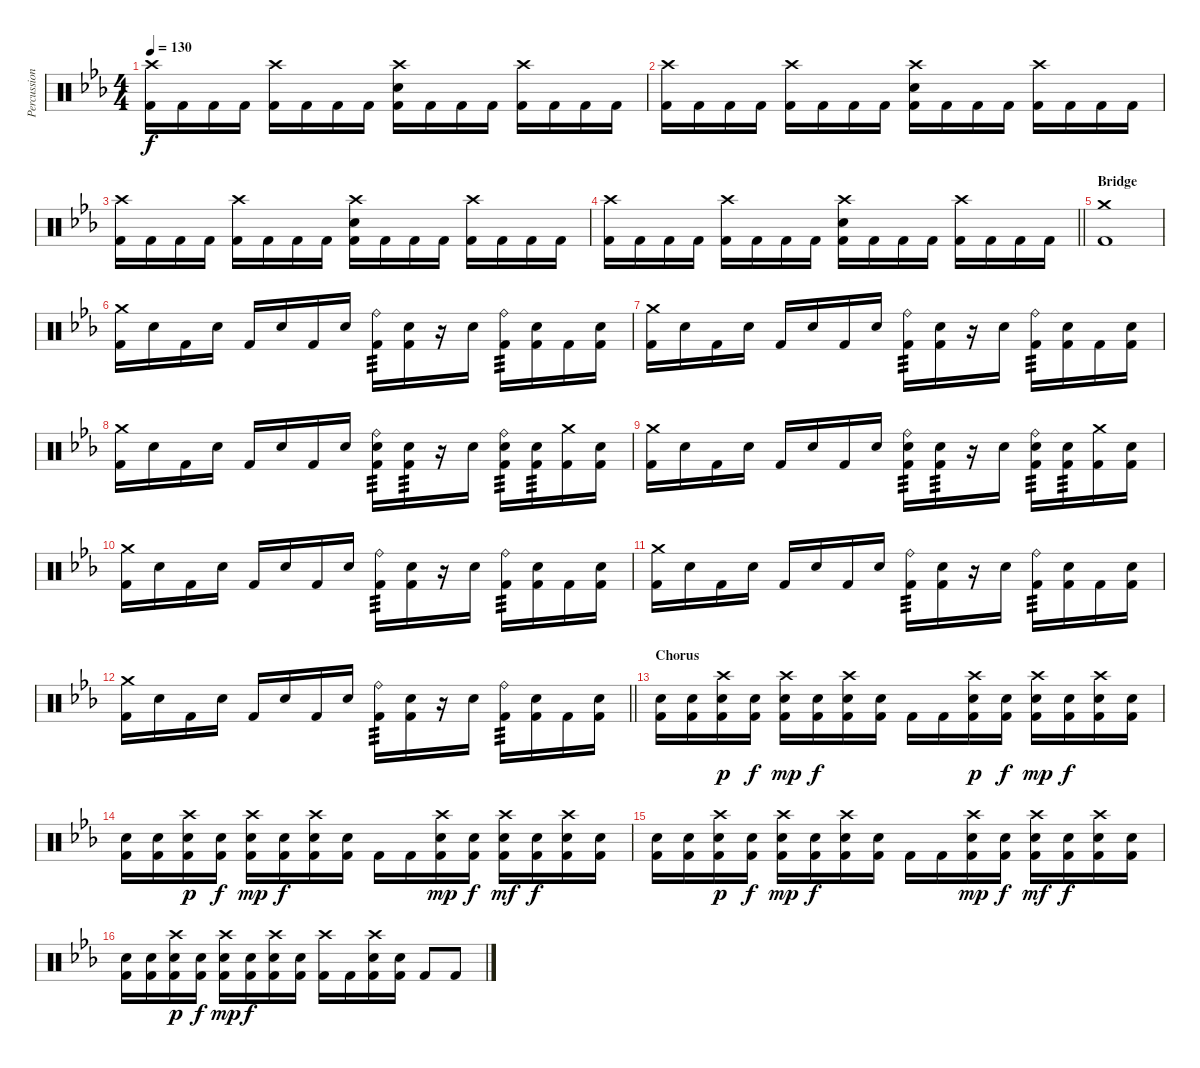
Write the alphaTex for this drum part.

\track ("Percussion" "Percussion") {instrument percussion}
\staff {score}
\articulation defaults
\ts (4 4)
\tempo 130
\clef neutral
\ks eb
("Crash high (hit)" "Kick (hit) 2").16{dy f} "Kick (hit) 2".16 "Kick (hit) 2".16 "Kick (hit) 2".16 ("Crash high (hit)" "Kick (hit) 2").16 "Kick (hit) 2".16 "Kick (hit) 2".16 "Kick (hit) 2".16 ("Crash high (hit)" "Electric Snare (hit)" "Kick (hit) 2").16 "Kick (hit) 2".16 "Kick (hit) 2".16 "Kick (hit) 2".16 ("Crash high (hit)" "Kick (hit) 2").16 "Kick (hit) 2".16 "Kick (hit) 2".16 "Kick (hit) 2".16 |
("Crash high (hit)" "Kick (hit) 2").16 "Kick (hit) 2".16 "Kick (hit) 2".16 "Kick (hit) 2".16 ("Crash high (hit)" "Kick (hit) 2").16 "Kick (hit) 2".16 "Kick (hit) 2".16 "Kick (hit) 2".16 ("Crash high (hit)" "Electric Snare (hit)" "Kick (hit) 2").16 "Kick (hit) 2".16 "Kick (hit) 2".16 "Kick (hit) 2".16 ("Crash high (hit)" "Kick (hit) 2").16 "Kick (hit) 2".16 "Kick (hit) 2".16 "Kick (hit) 2".16 |
("Crash high (hit)" "Kick (hit) 2").16 "Kick (hit) 2".16 "Kick (hit) 2".16 "Kick (hit) 2".16 ("Crash high (hit)" "Kick (hit) 2").16 "Kick (hit) 2".16 "Kick (hit) 2".16 "Kick (hit) 2".16 ("Crash high (hit)" "Electric Snare (hit)" "Kick (hit) 2").16 "Kick (hit) 2".16 "Kick (hit) 2".16 "Kick (hit) 2".16 ("Crash high (hit)" "Kick (hit) 2").16 "Kick (hit) 2".16 "Kick (hit) 2".16 "Kick (hit) 2".16 |
\barLineRight lightlight
("Crash high (hit)" "Kick (hit) 2").16 "Kick (hit) 2".16 "Kick (hit) 2".16 "Kick (hit) 2".16 ("Crash high (hit)" "Kick (hit) 2").16 "Kick (hit) 2".16 "Kick (hit) 2".16 "Kick (hit) 2".16 ("Crash high (hit)" "Electric Snare (hit)" "Kick (hit) 2").16 "Kick (hit) 2".16 "Kick (hit) 2".16 "Kick (hit) 2".16 ("Crash high (hit)" "Kick (hit) 2").16 "Kick (hit) 2".16 "Kick (hit) 2".16 "Kick (hit) 2".16 |
\section ("" "Bridge")
("Crash medium (hit)" "Kick (hit) 2").1 |
("Crash medium (hit)" "Kick (hit) 2").16 "Electric Snare (hit)".16 "Kick (hit) 2".16 "Electric Snare (hit)".16 "Kick (hit) 2".16 "Electric Snare (hit)".16 "Kick (hit) 2".16 "Electric Snare (hit)".16 ("Ride (bell)" "Kick (hit) 2").16{tp 3} ("Electric Snare (hit)" "Kick (hit) 2").16 r.16 "Electric Snare (hit)".16 ("Ride (bell)" "Kick (hit) 2").16{tp 3} ("Electric Snare (hit)" "Kick (hit) 2").16 "Kick (hit) 2".16 ("Electric Snare (hit)" "Kick (hit) 2").16 |
("Crash medium (hit)" "Kick (hit) 2").16 "Electric Snare (hit)".16 "Kick (hit) 2".16 "Electric Snare (hit)".16 "Kick (hit) 2".16 "Electric Snare (hit)".16 "Kick (hit) 2".16 "Electric Snare (hit)".16 ("Ride (bell)" "Kick (hit) 2").16{tp 3} ("Electric Snare (hit)" "Kick (hit) 2").16 r.16 "Electric Snare (hit)".16 ("Ride (bell)" "Kick (hit) 2").16{tp 3} ("Electric Snare (hit)" "Kick (hit) 2").16 "Kick (hit) 2".16 ("Electric Snare (hit)" "Kick (hit) 2").16 |
("Crash medium (hit)" "Kick (hit) 2").16 "Electric Snare (hit)".16 "Kick (hit) 2".16 "Electric Snare (hit)".16 "Kick (hit) 2".16 "Electric Snare (hit)".16 "Kick (hit) 2".16 "Electric Snare (hit)".16 ("Ride (bell)" "Electric Snare (hit)" "Kick (hit) 2").16{tp 3} ("Electric Snare (hit)" "Kick (hit) 2").16{tp 3} r.16 "Electric Snare (hit)".16 ("Ride (bell)" "Electric Snare (hit)" "Kick (hit) 2").16{tp 3} ("Electric Snare (hit)" "Kick (hit) 2").16{tp 3} ("Crash medium (hit)" "Kick (hit) 2").16 ("Electric Snare (hit)" "Kick (hit) 2").16 |
("Crash medium (hit)" "Kick (hit) 2").16 "Electric Snare (hit)".16 "Kick (hit) 2".16 "Electric Snare (hit)".16 "Kick (hit) 2".16 "Electric Snare (hit)".16 "Kick (hit) 2".16 "Electric Snare (hit)".16 ("Ride (bell)" "Electric Snare (hit)" "Kick (hit) 2").16{tp 3} ("Electric Snare (hit)" "Kick (hit) 2").16{tp 3} r.16 "Electric Snare (hit)".16 ("Ride (bell)" "Electric Snare (hit)" "Kick (hit) 2").16{tp 3} ("Electric Snare (hit)" "Kick (hit) 2").16{tp 3} ("Crash medium (hit)" "Kick (hit) 2").16 ("Electric Snare (hit)" "Kick (hit) 2").16 |
("Crash medium (hit)" "Kick (hit) 2").16 "Electric Snare (hit)".16 "Kick (hit) 2".16 "Electric Snare (hit)".16 "Kick (hit) 2".16 "Electric Snare (hit)".16 "Kick (hit) 2".16 "Electric Snare (hit)".16 ("Ride (bell)" "Kick (hit) 2").16{tp 3} ("Electric Snare (hit)" "Kick (hit) 2").16 r.16 "Electric Snare (hit)".16 ("Ride (bell)" "Kick (hit) 2").16{tp 3} ("Electric Snare (hit)" "Kick (hit) 2").16 "Kick (hit) 2".16 ("Electric Snare (hit)" "Kick (hit) 2").16 |
("Crash medium (hit)" "Kick (hit) 2").16 "Electric Snare (hit)".16 "Kick (hit) 2".16 "Electric Snare (hit)".16 "Kick (hit) 2".16 "Electric Snare (hit)".16 "Kick (hit) 2".16 "Electric Snare (hit)".16 ("Ride (bell)" "Kick (hit) 2").16{tp 3} ("Electric Snare (hit)" "Kick (hit) 2").16 r.16 "Electric Snare (hit)".16 ("Ride (bell)" "Kick (hit) 2").16{tp 3} ("Electric Snare (hit)" "Kick (hit) 2").16 "Kick (hit) 2".16 ("Electric Snare (hit)" "Kick (hit) 2").16 |
\barLineRight lightlight
("Crash medium (hit)" "Kick (hit) 2").16 "Electric Snare (hit)".16 "Kick (hit) 2".16 "Electric Snare (hit)".16 "Kick (hit) 2".16 "Electric Snare (hit)".16 "Kick (hit) 2".16 "Electric Snare (hit)".16 ("Ride (bell)" "Kick (hit) 2").16{tp 3} ("Electric Snare (hit)" "Kick (hit) 2").16 r.16 "Electric Snare (hit)".16 ("Ride (bell)" "Kick (hit) 2").16{tp 3} ("Electric Snare (hit)" "Kick (hit) 2").16 "Kick (hit) 2".16 ("Electric Snare (hit)" "Kick (hit) 2").16 |
\section ("" "Chorus")
("Electric Snare (hit)" "Kick (hit) 2").16 ("Electric Snare (hit)" "Kick (hit) 2").16 ("Crash high (hit)" "Electric Snare (hit)" "Kick (hit) 2").16{dy p} ("Electric Snare (hit)" "Kick (hit) 2").16{dy f} ("Crash high (hit)" "Electric Snare (hit)" "Kick (hit) 2").16{dy mp} ("Electric Snare (hit)" "Kick (hit) 2").16{dy f} ("Crash high (hit)" "Electric Snare (hit)" "Kick (hit) 2").16 ("Electric Snare (hit)" "Kick (hit) 2").16 "Kick (hit) 2".16 "Kick (hit) 2".16 ("Crash high (hit)" "Electric Snare (hit)" "Kick (hit) 2").16{dy p} ("Electric Snare (hit)" "Kick (hit) 2").16{dy f} ("Crash high (hit)" "Electric Snare (hit)" "Kick (hit) 2").16{dy mp} ("Electric Snare (hit)" "Kick (hit) 2").16{dy f} ("Crash high (hit)" "Electric Snare (hit)" "Kick (hit) 2").16 ("Electric Snare (hit)" "Kick (hit) 2").16 |
("Electric Snare (hit)" "Kick (hit) 2").16 ("Electric Snare (hit)" "Kick (hit) 2").16 ("Crash high (hit)" "Electric Snare (hit)" "Kick (hit) 2").16{dy p} ("Electric Snare (hit)" "Kick (hit) 2").16{dy f} ("Crash high (hit)" "Electric Snare (hit)" "Kick (hit) 2").16{dy mp} ("Electric Snare (hit)" "Kick (hit) 2").16{dy f} ("Crash high (hit)" "Electric Snare (hit)" "Kick (hit) 2").16 ("Electric Snare (hit)" "Kick (hit) 2").16 "Kick (hit) 2".16 "Kick (hit) 2".16 ("Crash high (hit)" "Electric Snare (hit)" "Kick (hit) 2").16{dy mp} ("Electric Snare (hit)" "Kick (hit) 2").16{dy f} ("Crash high (hit)" "Electric Snare (hit)" "Kick (hit) 2").16{dy mf} ("Electric Snare (hit)" "Kick (hit) 2").16{dy f} ("Crash high (hit)" "Electric Snare (hit)" "Kick (hit) 2").16 ("Electric Snare (hit)" "Kick (hit) 2").16 |
("Electric Snare (hit)" "Kick (hit) 2").16 ("Electric Snare (hit)" "Kick (hit) 2").16 ("Crash high (hit)" "Electric Snare (hit)" "Kick (hit) 2").16{dy p} ("Electric Snare (hit)" "Kick (hit) 2").16{dy f} ("Crash high (hit)" "Electric Snare (hit)" "Kick (hit) 2").16{dy mp} ("Electric Snare (hit)" "Kick (hit) 2").16{dy f} ("Crash high (hit)" "Electric Snare (hit)" "Kick (hit) 2").16 ("Electric Snare (hit)" "Kick (hit) 2").16 "Kick (hit) 2".16 "Kick (hit) 2".16 ("Crash high (hit)" "Electric Snare (hit)" "Kick (hit) 2").16{dy mp} ("Electric Snare (hit)" "Kick (hit) 2").16{dy f} ("Crash high (hit)" "Electric Snare (hit)" "Kick (hit) 2").16{dy mf} ("Electric Snare (hit)" "Kick (hit) 2").16{dy f} ("Crash high (hit)" "Electric Snare (hit)" "Kick (hit) 2").16 ("Electric Snare (hit)" "Kick (hit) 2").16 |
("Electric Snare (hit)" "Kick (hit) 2").16 ("Electric Snare (hit)" "Kick (hit) 2").16 ("Crash high (hit)" "Electric Snare (hit)" "Kick (hit) 2").16{dy p} ("Electric Snare (hit)" "Kick (hit) 2").16{dy f} ("Crash high (hit)" "Electric Snare (hit)" "Kick (hit) 2").16{dy mp} ("Electric Snare (hit)" "Kick (hit) 2").16{dy f} ("Crash high (hit)" "Electric Snare (hit)" "Kick (hit) 2").16 ("Electric Snare (hit)" "Kick (hit) 2").16 ("Crash high (hit)" "Kick (hit) 2").16 "Kick (hit) 2".16 ("Crash high (hit)" "Electric Snare (hit)" "Kick (hit) 2").16 ("Electric Snare (hit)" "Kick (hit) 2").16 "Kick (hit) 2".8 "Kick (hit) 2".8
